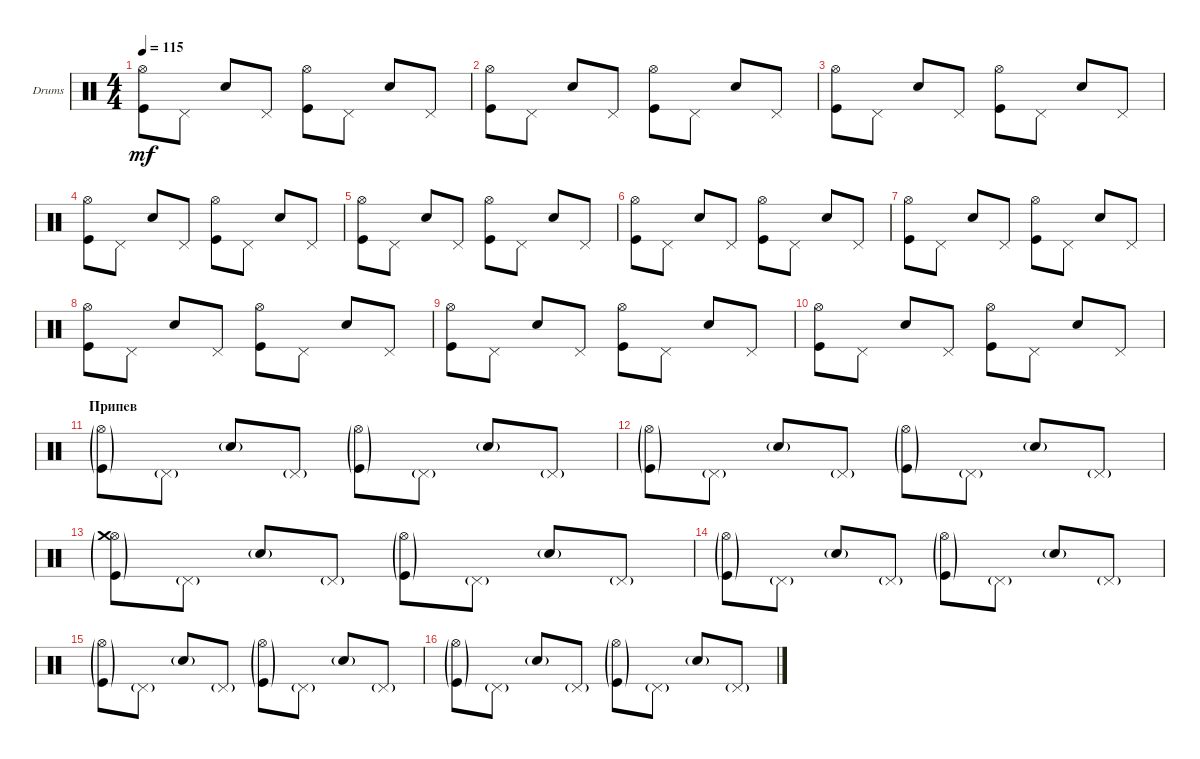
\defaultSystemsLayout 4
\bracketExtendMode groupsimilarinstruments
\firstSystemTrackNameOrientation horizontal
\otherSystemsTrackNameOrientation horizontal
\track ("Е.Кулаков Ударные" "Drums") {instrument percussion}
\staff {score}
\articulation defaults
\ts (4 4)
\tempo 115
\clef neutral
\scale
0.333333
\ks c
("Kick (hit)" "Hi-Hat (open)").8{dy mf} "Pedal Hi-Hat (hit)".8 "Snare (hit) 2".8 "Pedal Hi-Hat (hit)".8 ("Kick (hit)" "Hi-Hat (open)").8 "Pedal Hi-Hat (hit)".8 "Snare (hit) 2".8 "Pedal Hi-Hat (hit)".8 |
\scale
0.333333 ("Kick (hit)" "Hi-Hat (open)").8 "Pedal Hi-Hat (hit)".8 "Snare (hit) 2".8 "Pedal Hi-Hat (hit)".8 ("Kick (hit)" "Hi-Hat (open)").8 "Pedal Hi-Hat (hit)".8 "Snare (hit) 2".8 "Pedal Hi-Hat (hit)".8 |
\scale
0.333333 ("Kick (hit)" "Hi-Hat (open)").8 "Pedal Hi-Hat (hit)".8 "Snare (hit) 2".8 "Pedal Hi-Hat (hit)".8 ("Kick (hit)" "Hi-Hat (open)").8 "Pedal Hi-Hat (hit)".8 "Snare (hit) 2".8 "Pedal Hi-Hat (hit)".8 |
\scale
0.333333 ("Kick (hit)" "Hi-Hat (open)").8 "Pedal Hi-Hat (hit)".8 "Snare (hit) 2".8 "Pedal Hi-Hat (hit)".8 ("Kick (hit)" "Hi-Hat (open)").8 "Pedal Hi-Hat (hit)".8 "Snare (hit) 2".8 "Pedal Hi-Hat (hit)".8 |
\scale
0.333333 ("Kick (hit)" "Hi-Hat (open)").8 "Pedal Hi-Hat (hit)".8 "Snare (hit) 2".8 "Pedal Hi-Hat (hit)".8 ("Kick (hit)" "Hi-Hat (open)").8 "Pedal Hi-Hat (hit)".8 "Snare (hit) 2".8 "Pedal Hi-Hat (hit)".8 |
\scale
0.333333 ("Kick (hit)" "Hi-Hat (open)").8 "Pedal Hi-Hat (hit)".8 "Snare (hit) 2".8 "Pedal Hi-Hat (hit)".8 ("Kick (hit)" "Hi-Hat (open)").8 "Pedal Hi-Hat (hit)".8 "Snare (hit) 2".8 "Pedal Hi-Hat (hit)".8 |
\scale
0.333333 ("Kick (hit)" "Hi-Hat (open)").8 "Pedal Hi-Hat (hit)".8 "Snare (hit) 2".8 "Pedal Hi-Hat (hit)".8 ("Kick (hit)" "Hi-Hat (open)").8 "Pedal Hi-Hat (hit)".8 "Snare (hit) 2".8 "Pedal Hi-Hat (hit)".8 |
("Kick (hit)" "Hi-Hat (open)").8 "Pedal Hi-Hat (hit)".8 "Snare (hit) 2".8 "Pedal Hi-Hat (hit)".8 ("Kick (hit)" "Hi-Hat (open)").8 "Pedal Hi-Hat (hit)".8 "Snare (hit) 2".8 "Pedal Hi-Hat (hit)".8 |
\scale
0.333333 ("Kick (hit)" "Hi-Hat (open)").8 "Pedal Hi-Hat (hit)".8 "Snare (hit) 2".8 "Pedal Hi-Hat (hit)".8 ("Kick (hit)" "Hi-Hat (open)").8 "Pedal Hi-Hat (hit)".8 "Snare (hit) 2".8 "Pedal Hi-Hat (hit)".8 |
\scale
0.333333 ("Kick (hit)" "Hi-Hat (open)").8 "Pedal Hi-Hat (hit)".8 "Snare (hit) 2".8 "Pedal Hi-Hat (hit)".8 ("Kick (hit)" "Hi-Hat (open)").8 "Pedal Hi-Hat (hit)".8 "Snare (hit) 2".8 "Pedal Hi-Hat (hit)".8 |
\section ("" "Припев")
\scale
0.333333 ("Kick (hit)"{g} "Hi-Hat (open)"{g}).8 "Pedal Hi-Hat (hit)"{g}.8 "Snare (hit) 2"{g}.8 "Pedal Hi-Hat (hit)"{g}.8 ("Kick (hit)"{g} "Hi-Hat (open)"{g}).8 "Pedal Hi-Hat (hit)"{g}.8 "Snare (hit) 2"{g}.8 "Pedal Hi-Hat (hit)"{g}.8 |
\scale
0.333333 ("Kick (hit)"{g} "Hi-Hat (open)"{g}).8 "Pedal Hi-Hat (hit)"{g}.8 "Snare (hit) 2"{g}.8 "Pedal Hi-Hat (hit)"{g}.8 ("Kick (hit)"{g} "Hi-Hat (open)"{g}).8 "Pedal Hi-Hat (hit)"{g}.8 "Snare (hit) 2"{g}.8 "Pedal Hi-Hat (hit)"{g}.8 |
\scale
0.333333 ("Kick (hit)"{g} "Hi-Hat (open)"{g} "Crash medium (hit)"{g}).8 "Pedal Hi-Hat (hit)"{g}.8 "Snare (hit) 2"{g}.8 "Pedal Hi-Hat (hit)"{g}.8 ("Kick (hit)"{g} "Hi-Hat (open)"{g}).8 "Pedal Hi-Hat (hit)"{g}.8 "Snare (hit) 2"{g}.8 "Pedal Hi-Hat (hit)"{g}.8 |
\scale
0.333333 ("Kick (hit)"{g} "Hi-Hat (open)"{g}).8 "Pedal Hi-Hat (hit)"{g}.8 "Snare (hit) 2"{g}.8 "Pedal Hi-Hat (hit)"{g}.8 ("Kick (hit)"{g} "Hi-Hat (open)"{g}).8 "Pedal Hi-Hat (hit)"{g}.8 "Snare (hit) 2"{g}.8 "Pedal Hi-Hat (hit)"{g}.8 |
\scale
0.333333 ("Kick (hit)"{g} "Hi-Hat (open)"{g}).8 "Pedal Hi-Hat (hit)"{g}.8 "Snare (hit) 2"{g}.8 "Pedal Hi-Hat (hit)"{g}.8 ("Kick (hit)"{g} "Hi-Hat (open)"{g}).8 "Pedal Hi-Hat (hit)"{g}.8 "Snare (hit) 2"{g}.8 "Pedal Hi-Hat (hit)"{g}.8 |
\scale
0.333333 ("Kick (hit)"{g} "Hi-Hat (open)"{g}).8 "Pedal Hi-Hat (hit)"{g}.8 "Snare (hit) 2"{g}.8 "Pedal Hi-Hat (hit)"{g}.8 ("Kick (hit)"{g} "Hi-Hat (open)"{g}).8 "Pedal Hi-Hat (hit)"{g}.8 "Snare (hit) 2"{g}.8 "Pedal Hi-Hat (hit)"{g}.8
